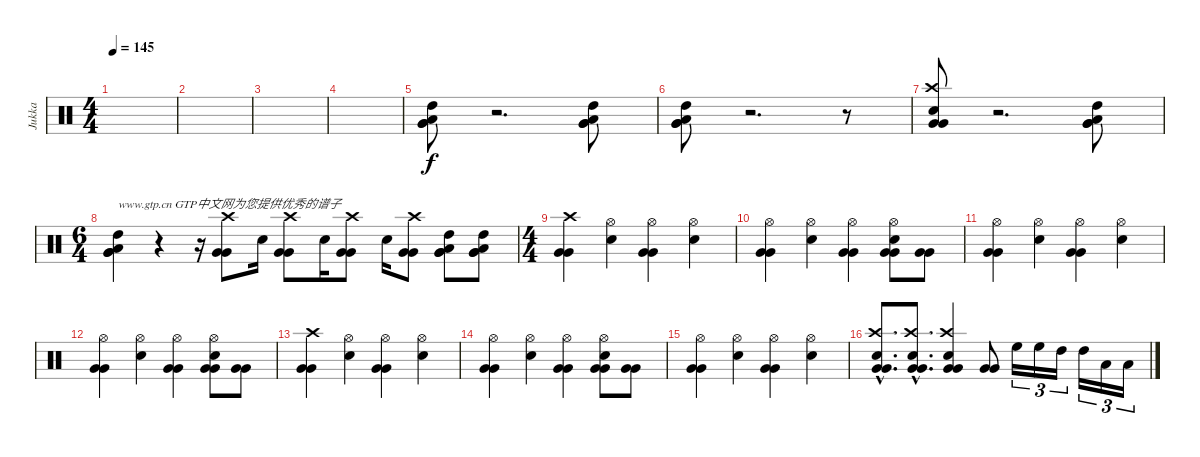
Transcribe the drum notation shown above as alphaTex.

\track ("Jukka" "Jukka") {instrument percussion}
\staff {score}
\articulation defaults
\ts (4 4)
\tempo 145
\clef neutral
\ks c
|
|
|
|
("High Tom (hit)" "Low Tom (hit)" "Very Low Tom (hit)" "Very Low Tom (hit)").8 r.2{d} ("High Tom (hit)" "Low Tom (hit)" "Very Low Tom (hit)" "Very Low Tom (hit)").8 |
("High Tom (hit)" "Low Tom (hit)" "Very Low Tom (hit)" "Very Low Tom (hit)").8 r.2{d} r.8 |
("Crash high (hit)" "Electric Snare (hit)" "Very Low Tom (hit)" "Very Low Tom (hit)").8 r.2{d} ("High Tom (hit)" "Low Tom (hit)" "Very Low Tom (hit)" "Very Low Tom (hit)").8 |
\ts (6 4)
("High Tom (hit)" "Low Tom (hit)" "Very Low Tom (hit)" "Very Low Tom (hit)").4{txt "www.gtp.cn GTP中文网为您提供优秀的谱子"} r.4 r.16 ("Crash high (hit)" "Very Low Tom (hit)" "Very Low Tom (hit)").8 "Electric Snare (hit)".16 ("Crash high (hit)" "Very Low Tom (hit)" "Very Low Tom (hit)").8 "Electric Snare (hit)".16 ("Crash high (hit)" "Very Low Tom (hit)" "Very Low Tom (hit)").8 "Electric Snare (hit)".16 ("Crash high (hit)" "Very Low Tom (hit)" "Very Low Tom (hit)").8 ("High Tom (hit)" "Low Tom (hit)" "Very Low Tom (hit)" "Very Low Tom (hit)").8 ("High Tom (hit)" "Low Tom (hit)" "Very Low Tom (hit)" "Very Low Tom (hit)").8 |
\ts (4 4)
("Crash high (hit)" "Very Low Tom (hit)" "Very Low Tom (hit)").4 ("Hi-Hat (open)" "Electric Snare (hit)").4 ("Hi-Hat (open)" "Very Low Tom (hit)" "Very Low Tom (hit)").4 ("Hi-Hat (open)" "Electric Snare (hit)").4 |
("Hi-Hat (open)" "Very Low Tom (hit)" "Very Low Tom (hit)").4 ("Hi-Hat (open)" "Electric Snare (hit)").4 ("Hi-Hat (open)" "Very Low Tom (hit)" "Very Low Tom (hit)").4 ("Hi-Hat (open)" "Electric Snare (hit)" "Very Low Tom (hit)" "Very Low Tom (hit)").8 ("Very Low Tom (hit)" "Very Low Tom (hit)").8 |
("Hi-Hat (open)" "Very Low Tom (hit)" "Very Low Tom (hit)").4 ("Hi-Hat (open)" "Electric Snare (hit)").4 ("Hi-Hat (open)" "Very Low Tom (hit)" "Very Low Tom (hit)").4 ("Hi-Hat (open)" "Electric Snare (hit)").4 |
("Hi-Hat (open)" "Very Low Tom (hit)" "Very Low Tom (hit)").4 ("Hi-Hat (open)" "Electric Snare (hit)").4 ("Hi-Hat (open)" "Very Low Tom (hit)" "Very Low Tom (hit)").4 ("Hi-Hat (open)" "Electric Snare (hit)" "Very Low Tom (hit)" "Very Low Tom (hit)").8 ("Very Low Tom (hit)" "Very Low Tom (hit)").8 |
("Crash high (hit)" "Very Low Tom (hit)" "Very Low Tom (hit)").4 ("Hi-Hat (open)" "Electric Snare (hit)").4 ("Hi-Hat (open)" "Very Low Tom (hit)" "Very Low Tom (hit)").4 ("Hi-Hat (open)" "Electric Snare (hit)").4 |
("Hi-Hat (open)" "Very Low Tom (hit)" "Very Low Tom (hit)").4 ("Hi-Hat (open)" "Electric Snare (hit)").4 ("Hi-Hat (open)" "Very Low Tom (hit)" "Very Low Tom (hit)").4 ("Hi-Hat (open)" "Electric Snare (hit)" "Very Low Tom (hit)" "Very Low Tom (hit)").8 ("Very Low Tom (hit)" "Very Low Tom (hit)").8 |
("Hi-Hat (open)" "Very Low Tom (hit)" "Very Low Tom (hit)").4 ("Hi-Hat (open)" "Electric Snare (hit)").4 ("Hi-Hat (open)" "Very Low Tom (hit)" "Very Low Tom (hit)").4 ("Hi-Hat (open)" "Electric Snare (hit)").4 |
("Crash high (hit)"{hac} "Electric Snare (hit)"{hac} "Very Low Tom (hit)"{hac} "Very Low Tom (hit)"{hac}).8{d} ("Crash high (hit)"{hac} "Electric Snare (hit)"{hac} "Very Low Tom (hit)"{hac} "Very Low Tom (hit)"{hac}).8{d} ("Crash high (hit)" "Electric Snare (hit)" "Very Low Tom (hit)" "Very Low Tom (hit)").4 ("Very Low Tom (hit)" "Very Low Tom (hit)").8 "High Floor Tom (hit)".16{tu (3 2)} "High Floor Tom (hit)".16{tu (3 2)} "High Tom (hit)".16{tu (3 2)} "High Tom (hit)".16{tu (3 2)} "Low Tom (hit)".16{tu (3 2)} "Low Tom (hit)".16{tu (3 2)}
